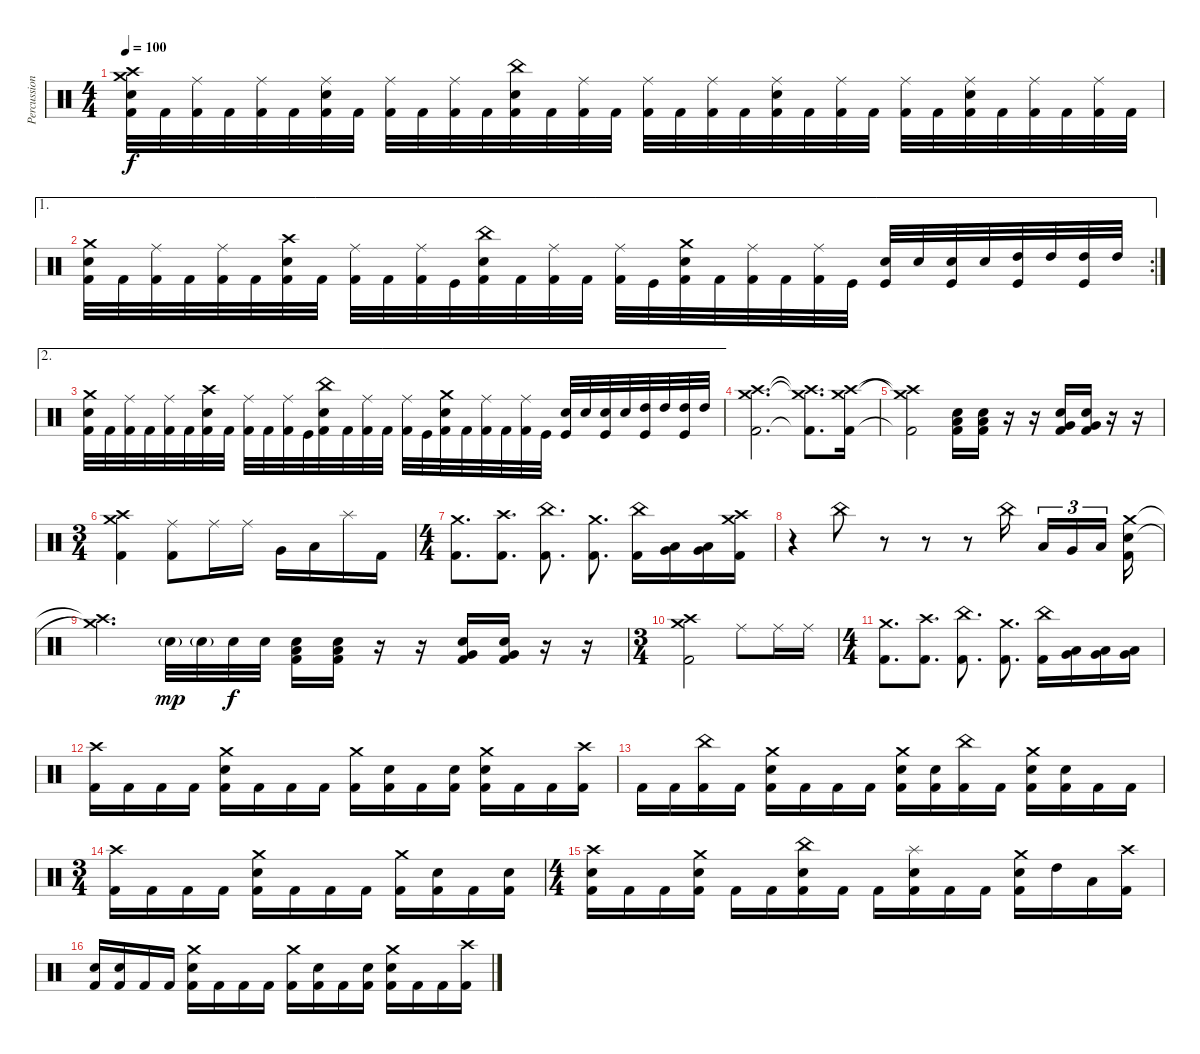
\track ("Percussion" "Percussion") {mute instrument percussion}
\staff {score}
\articulation defaults
\ts (4 4)
\tempo 100
\clef neutral
\ks c
("Crash high (hit)" "Crash medium (hit)" "Electric Snare (hit)" "Kick (hit) 2").32{dy f} "Kick (hit) 2".32 ("Ride (middle)" "Kick (hit) 2").32 "Kick (hit) 2".32 ("Ride (middle)" "Kick (hit) 2").32 "Kick (hit) 2".32 ("Ride (middle)" "Electric Snare (hit)" "Kick (hit) 2").32 "Kick (hit) 2".32 ("Ride (middle)" "Kick (hit) 2").32 "Kick (hit) 2".32 ("Ride (middle)" "Kick (hit) 2").32 "Kick (hit) 2".32 ("China (hit)" "Electric Snare (hit)" "Kick (hit) 2").32 "Kick (hit) 2".32 ("Ride (middle)" "Kick (hit) 2").32 "Kick (hit) 2".32 ("Ride (middle)" "Kick (hit) 2").32 "Kick (hit) 2".32 ("Ride (middle)" "Kick (hit) 2").32 "Kick (hit) 2".32 ("Ride (middle)" "Electric Snare (hit)" "Kick (hit) 2").32 "Kick (hit) 2".32 ("Ride (middle)" "Kick (hit) 2").32 "Kick (hit) 2".32 ("Ride (middle)" "Kick (hit) 2").32 "Kick (hit) 2".32 ("Ride (middle)" "Electric Snare (hit)" "Kick (hit) 2").32 "Kick (hit) 2".32 ("Ride (middle)" "Kick (hit) 2").32 "Kick (hit) 2".32 ("Ride (middle)" "Kick (hit) 2").32 "Kick (hit) 2".32 |
\ae 1
\rc 2
("Crash medium (hit)" "Electric Snare (hit)" "Kick (hit) 2").32 "Kick (hit) 2".32 ("Ride (middle)" "Kick (hit) 2").32 "Kick (hit) 2".32 ("Ride (middle)" "Kick (hit) 2").32 "Kick (hit) 2".32 ("Crash high (hit)" "Electric Snare (hit)" "Kick (hit) 2").32 "Kick (hit) 2".32 ("Ride (middle)" "Kick (hit) 2").32 "Kick (hit) 2".32 ("Ride (middle)" "Kick (hit) 2").32 "Kick (hit)".32 ("China (hit)" "Electric Snare (hit)" "Kick (hit) 2").32 "Kick (hit) 2".32 ("Ride (middle)" "Kick (hit) 2").32 "Kick (hit) 2".32 ("Ride (middle)" "Kick (hit) 2").32 "Kick (hit)".32 ("Crash medium (hit)" "Electric Snare (hit)" "Kick (hit) 2").32 "Kick (hit) 2".32 ("Ride (middle)" "Kick (hit) 2").32 "Kick (hit) 2".32 ("Ride (middle)" "Kick (hit) 2").32 "Kick (hit)".32 ("Electric Snare (hit)" "Kick (hit)").32 "Electric Snare (hit)".32 ("Electric Snare (hit)" "Kick (hit)").32 "Electric Snare (hit)".32 ("High Tom (hit)" "Kick (hit)").32 "High Tom (hit)".32 ("High Tom (hit)" "Kick (hit)").32 "High Tom (hit)".32 |
\ae 2
("Crash medium (hit)" "Electric Snare (hit)" "Kick (hit) 2").32 "Kick (hit) 2".32 ("Ride (middle)" "Kick (hit) 2").32 "Kick (hit) 2".32 ("Ride (middle)" "Kick (hit) 2").32 "Kick (hit) 2".32 ("Crash high (hit)" "Electric Snare (hit)" "Kick (hit) 2").32 "Kick (hit) 2".32 ("Ride (middle)" "Kick (hit) 2").32 "Kick (hit) 2".32 ("Ride (middle)" "Kick (hit) 2").32 "Kick (hit)".32 ("China (hit)" "Electric Snare (hit)" "Kick (hit) 2").32 "Kick (hit) 2".32 ("Ride (middle)" "Kick (hit) 2").32 "Kick (hit) 2".32 ("Ride (middle)" "Kick (hit) 2").32 "Kick (hit)".32 ("Crash medium (hit)" "Electric Snare (hit)" "Kick (hit) 2").32 "Kick (hit) 2".32 ("Ride (middle)" "Kick (hit) 2").32 "Kick (hit) 2".32 ("Ride (middle)" "Kick (hit) 2").32 "Kick (hit)".32 ("Electric Snare (hit)" "Kick (hit)").32 "Electric Snare (hit)".32 ("Electric Snare (hit)" "Kick (hit)").32 "Electric Snare (hit)".32 ("High Tom (hit)" "Kick (hit)").32 "High Tom (hit)".32 ("High Tom (hit)" "Kick (hit)").32 "High Tom (hit)".32 |
("Crash medium (hit)" "Crash high (hit)" "Kick (hit) 2").2{d} ("Crash medium (hit)"{t} "Crash high (hit)"{t} "Kick (hit) 2"{t}).8{d} ("Crash medium (hit)" "Crash high (hit)" "Kick (hit) 2").16 |
("Crash high (hit)"{t} "Crash medium (hit)"{t} "Kick (hit) 2"{t}).2 ("Low Tom (hit)" "Electric Snare (hit)" "Kick (hit) 2").16 ("Low Tom (hit)" "Electric Snare (hit)" "Kick (hit) 2").16 r.16 r.16 ("Very Low Tom (hit)" "Electric Snare (hit)" "Kick (hit) 2").16 ("Very Low Tom (hit)" "Electric Snare (hit)" "Kick (hit) 2").16 r.16 r.16 |
\ts (3 4)
("Crash medium (hit)" "Crash high (hit)" "Kick (hit) 2").4 ("Ride (middle)" "Kick (hit) 2").8 "Ride (middle)".16 "Ride (middle)".16 "Very Low Tom (hit)".16 "Low Floor Tom (hit)".16 "Splash (hit)".16 "Kick (hit) 2".16 |
\ts (4 4)
("Crash medium (hit)" "Kick (hit) 2").8{d} ("Crash high (hit)" "Kick (hit) 2").8{d} ("China (hit)" "Kick (hit) 2").8{d} ("Crash medium (hit)" "Kick (hit) 2").8{d} ("China (hit)" "Kick (hit) 2").16 ("Low Tom (hit)" "Very Low Tom (hit)").16 ("Low Tom (hit)" "Very Low Tom (hit)").16 ("Crash medium (hit)" "Crash high (hit)" "Kick (hit) 2").16 |
r.4 "China (hit)".8 r.8 r.8 r.8 "China (hit)".16{beam splitsecondary} "Low Tom (hit)".16{tu (3 2)} "Very Low Tom (hit)".16{tu (3 2)} "Low Floor Tom (hit)".16{tu (3 2) beam splitsecondary} ("Crash medium (hit)" "Electric Snare (hit)" "Kick (hit) 2").16 |
("Crash high (hit)"{t} "Crash medium (hit)"{t}).4{d} "Electric Snare (hit)"{g}.32{dy mp} "Electric Snare (hit)"{g}.32 "Electric Snare (hit)".32{dy f} "Electric Snare (hit)".32 ("Low Tom (hit)" "Electric Snare (hit)" "Kick (hit) 2").16 ("Low Tom (hit)" "Electric Snare (hit)" "Kick (hit) 2").16 r.16 r.16 ("Very Low Tom (hit)" "Electric Snare (hit)" "Kick (hit) 2").16 ("Very Low Tom (hit)" "Electric Snare (hit)" "Kick (hit) 2").16 r.16 r.16 |
\ts (3 4)
("Crash medium (hit)" "Crash high (hit)" "Kick (hit) 2").2 "Ride (middle)".8 "Ride (middle)".16 "Ride (middle)".16 |
\ts (4 4)
("Crash medium (hit)" "Kick (hit) 2").8{d} ("Crash high (hit)" "Kick (hit) 2").8{d} ("China (hit)" "Kick (hit) 2").8{d} ("Crash medium (hit)" "Kick (hit) 2").8{d} ("China (hit)" "Kick (hit) 2").16 ("Low Tom (hit)" "Very Low Tom (hit)").16 ("Low Tom (hit)" "Very Low Tom (hit)").16 ("Very Low Tom (hit)" "Low Floor Tom (hit)").16 |
("Crash high (hit)" "Kick (hit) 2").16 "Kick (hit) 2".16 "Kick (hit) 2".16 "Kick (hit) 2".16 ("Crash medium (hit)" "Electric Snare (hit)" "Kick (hit) 2").16 "Kick (hit) 2".16 "Kick (hit) 2".16 "Kick (hit) 2".16 ("Crash medium (hit)" "Kick (hit) 2").16 ("Electric Snare (hit)" "Kick (hit) 2").16 "Kick (hit) 2".16 ("Electric Snare (hit)" "Kick (hit) 2").16 ("Crash medium (hit)" "Electric Snare (hit)" "Kick (hit) 2").16 "Kick (hit) 2".16 "Kick (hit) 2".16 ("Crash high (hit)" "Kick (hit) 2").16 |
"Kick (hit) 2".16 "Kick (hit) 2".16 ("China (hit)" "Kick (hit) 2").16 "Kick (hit) 2".16 ("Crash medium (hit)" "Electric Snare (hit)" "Kick (hit) 2").16 "Kick (hit) 2".16 "Kick (hit) 2".16 "Kick (hit) 2".16 ("Crash medium (hit)" "Electric Snare (hit)" "Kick (hit) 2").16 ("Electric Snare (hit)" "Kick (hit) 2").16 ("China (hit)" "Kick (hit) 2").16 "Kick (hit) 2".16 ("Crash medium (hit)" "Electric Snare (hit)" "Kick (hit) 2").16 ("Electric Snare (hit)" "Kick (hit) 2").16 "Kick (hit) 2".16 "Kick (hit) 2".16 |
\ts (3 4)
("Crash high (hit)" "Kick (hit) 2").16 "Kick (hit) 2".16 "Kick (hit) 2".16 "Kick (hit) 2".16 ("Crash medium (hit)" "Electric Snare (hit)" "Kick (hit) 2").16 "Kick (hit) 2".16 "Kick (hit) 2".16 "Kick (hit) 2".16 ("Crash medium (hit)" "Kick (hit) 2").16 ("Electric Snare (hit)" "Kick (hit) 2").16 "Kick (hit) 2".16 ("Electric Snare (hit)" "Kick (hit) 2").16 |
\ts (4 4)
("Crash high (hit)" "Electric Snare (hit)" "Kick (hit) 2").16 "Kick (hit) 2".16 "Kick (hit) 2".16 ("Crash medium (hit)" "Electric Snare (hit)" "Kick (hit) 2").16 "Kick (hit) 2".16 "Kick (hit) 2".16 ("China (hit)" "Electric Snare (hit)" "Kick (hit) 2").16 "Kick (hit) 2".16 "Kick (hit) 2".16 ("Splash (hit)" "Electric Snare (hit)" "Kick (hit) 2").16 "Kick (hit) 2".16 "Kick (hit) 2".16 ("Crash medium (hit)" "Electric Snare (hit)" "Kick (hit) 2").16 "High Tom (hit)".16 "Low Tom (hit)".16 ("Crash high (hit)" "Kick (hit) 2").16 |
("Electric Snare (hit)" "Kick (hit) 2").16 ("Electric Snare (hit)" "Kick (hit) 2").16 "Kick (hit) 2".16 "Kick (hit) 2".16 ("Crash medium (hit)" "Electric Snare (hit)" "Kick (hit) 2").16 "Kick (hit) 2".16 "Kick (hit) 2".16 "Kick (hit) 2".16 ("Crash medium (hit)" "Kick (hit) 2").16 ("Electric Snare (hit)" "Kick (hit) 2").16 "Kick (hit) 2".16 ("Electric Snare (hit)" "Kick (hit) 2").16 ("Crash medium (hit)" "Electric Snare (hit)" "Kick (hit) 2").16 "Kick (hit) 2".16 "Kick (hit) 2".16 ("Crash high (hit)" "Kick (hit) 2").16
